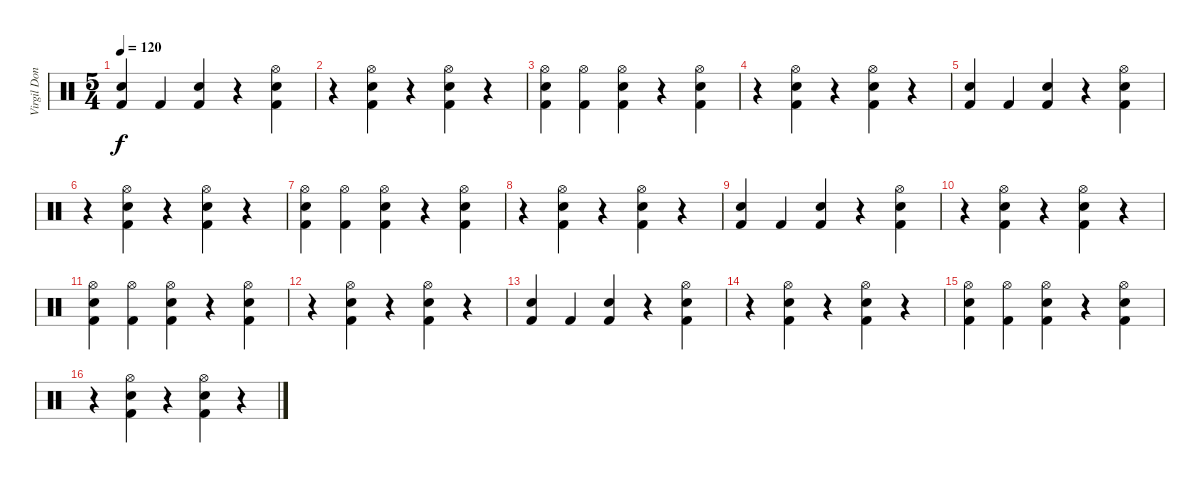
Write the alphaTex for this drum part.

\track ("Virgil Donatti" "Virgil Don") {instrument percussion}
\staff {score}
\articulation defaults
\ts (5 4)
\tempo 120
\clef neutral
\ks c
("Snare (hit) 2" "Kick (hit) 2").4{dy f} "Kick (hit) 2".4 ("Snare (hit) 2" "Kick (hit) 2").4 r.4 ("Hi-Hat (open)" "Snare (hit) 2" "Kick (hit) 2").4 |
r.4 ("Hi-Hat (open)" "Snare (hit) 2" "Kick (hit) 2").4 r.4 ("Hi-Hat (open)" "Snare (hit) 2" "Kick (hit) 2").4 r.4 |
("Hi-Hat (open)" "Snare (hit) 2" "Kick (hit) 2").4 ("Hi-Hat (open)" "Kick (hit) 2").4 ("Hi-Hat (open)" "Snare (hit) 2" "Kick (hit) 2").4 r.4 ("Hi-Hat (open)" "Snare (hit) 2" "Kick (hit) 2").4 |
r.4 ("Hi-Hat (open)" "Snare (hit) 2" "Kick (hit) 2").4 r.4 ("Hi-Hat (open)" "Snare (hit) 2" "Kick (hit) 2").4 r.4 |
("Snare (hit) 2" "Kick (hit) 2").4 "Kick (hit) 2".4 ("Snare (hit) 2" "Kick (hit) 2").4 r.4 ("Hi-Hat (open)" "Snare (hit) 2" "Kick (hit) 2").4 |
r.4 ("Hi-Hat (open)" "Snare (hit) 2" "Kick (hit) 2").4 r.4 ("Hi-Hat (open)" "Snare (hit) 2" "Kick (hit) 2").4 r.4 |
("Hi-Hat (open)" "Snare (hit) 2" "Kick (hit) 2").4 ("Hi-Hat (open)" "Kick (hit) 2").4 ("Hi-Hat (open)" "Snare (hit) 2" "Kick (hit) 2").4 r.4 ("Hi-Hat (open)" "Snare (hit) 2" "Kick (hit) 2").4 |
r.4 ("Hi-Hat (open)" "Snare (hit) 2" "Kick (hit) 2").4 r.4 ("Hi-Hat (open)" "Snare (hit) 2" "Kick (hit) 2").4 r.4 |
("Snare (hit) 2" "Kick (hit) 2").4 "Kick (hit) 2".4 ("Snare (hit) 2" "Kick (hit) 2").4 r.4 ("Hi-Hat (open)" "Snare (hit) 2" "Kick (hit) 2").4 |
r.4 ("Hi-Hat (open)" "Snare (hit) 2" "Kick (hit) 2").4 r.4 ("Hi-Hat (open)" "Snare (hit) 2" "Kick (hit) 2").4 r.4 |
("Hi-Hat (open)" "Snare (hit) 2" "Kick (hit) 2").4 ("Hi-Hat (open)" "Kick (hit) 2").4 ("Hi-Hat (open)" "Snare (hit) 2" "Kick (hit) 2").4 r.4 ("Hi-Hat (open)" "Snare (hit) 2" "Kick (hit) 2").4 |
r.4 ("Hi-Hat (open)" "Snare (hit) 2" "Kick (hit) 2").4 r.4 ("Hi-Hat (open)" "Snare (hit) 2" "Kick (hit) 2").4 r.4 |
("Snare (hit) 2" "Kick (hit) 2").4 "Kick (hit) 2".4 ("Snare (hit) 2" "Kick (hit) 2").4 r.4 ("Hi-Hat (open)" "Snare (hit) 2" "Kick (hit) 2").4 |
r.4 ("Hi-Hat (open)" "Snare (hit) 2" "Kick (hit) 2").4 r.4 ("Hi-Hat (open)" "Snare (hit) 2" "Kick (hit) 2").4 r.4 |
("Hi-Hat (open)" "Snare (hit) 2" "Kick (hit) 2").4 ("Hi-Hat (open)" "Kick (hit) 2").4 ("Hi-Hat (open)" "Snare (hit) 2" "Kick (hit) 2").4 r.4 ("Hi-Hat (open)" "Snare (hit) 2" "Kick (hit) 2").4 |
r.4 ("Hi-Hat (open)" "Snare (hit) 2" "Kick (hit) 2").4 r.4 ("Hi-Hat (open)" "Snare (hit) 2" "Kick (hit) 2").4 r.4
